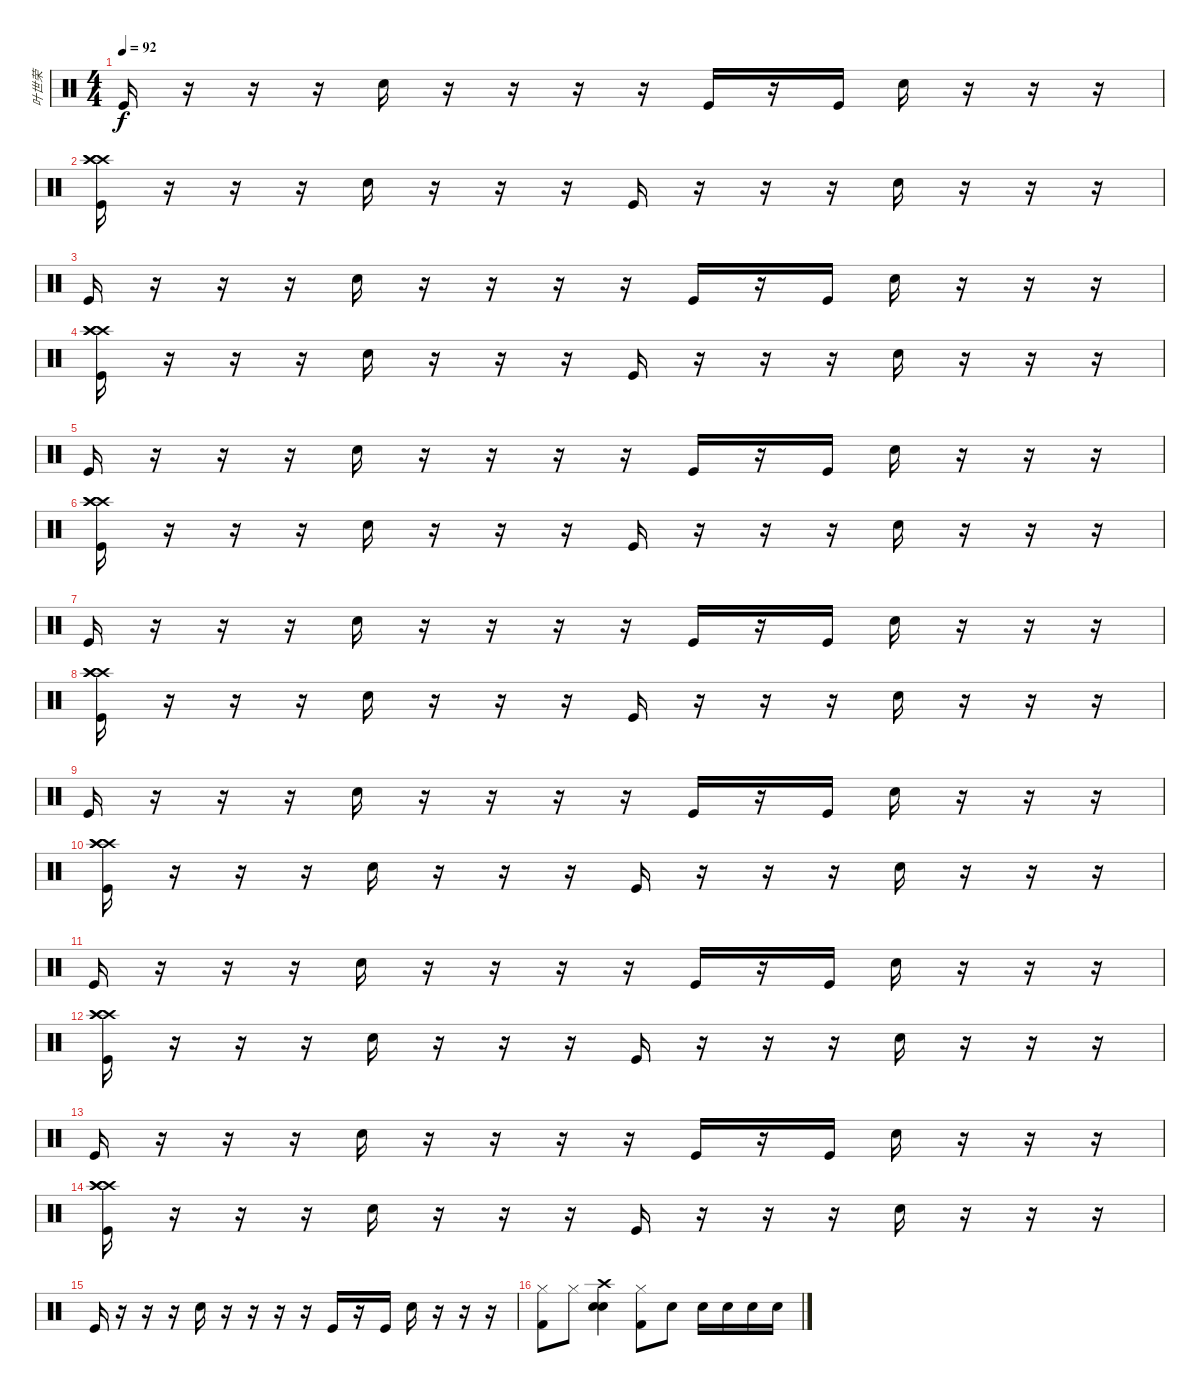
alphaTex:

\track ("叶世荣" "叶世荣") {instrument percussion}
\staff {score}
\articulation defaults
\ts (4 4)
\tempo 92
\clef neutral
\ks c "Kick (hit)".16{dy f}
r.16 r.16 r.16 "Electric Snare (hit)".16 r.16 r.16 r.16 r.16 "Kick (hit)".16 r.16 "Kick (hit)".16 "Electric Snare (hit)".16 r.16 r.16 r.16 |
("Kick (hit)" "Crash high (hit)" "Crash high (hit)" "Crash high (hit)").16 r.16 r.16 r.16 "Electric Snare (hit)".16 r.16 r.16 r.16 "Kick (hit)".16 r.16 r.16 r.16 "Electric Snare (hit)".16 r.16 r.16 r.16 |
"Kick (hit)".16 r.16 r.16 r.16 "Electric Snare (hit)".16 r.16 r.16 r.16 r.16 "Kick (hit)".16 r.16 "Kick (hit)".16 "Electric Snare (hit)".16 r.16 r.16 r.16 |
("Kick (hit)" "Crash high (hit)" "Crash high (hit)" "Crash high (hit)").16 r.16 r.16 r.16 "Electric Snare (hit)".16 r.16 r.16 r.16 "Kick (hit)".16 r.16 r.16 r.16 "Electric Snare (hit)".16 r.16 r.16 r.16 |
"Kick (hit)".16 r.16 r.16 r.16 "Electric Snare (hit)".16 r.16 r.16 r.16 r.16 "Kick (hit)".16 r.16 "Kick (hit)".16 "Electric Snare (hit)".16 r.16 r.16 r.16 |
("Kick (hit)" "Crash high (hit)" "Crash high (hit)" "Crash high (hit)").16 r.16 r.16 r.16 "Electric Snare (hit)".16 r.16 r.16 r.16 "Kick (hit)".16 r.16 r.16 r.16 "Electric Snare (hit)".16 r.16 r.16 r.16 |
"Kick (hit)".16 r.16 r.16 r.16 "Electric Snare (hit)".16 r.16 r.16 r.16 r.16 "Kick (hit)".16 r.16 "Kick (hit)".16 "Electric Snare (hit)".16 r.16 r.16 r.16 |
("Kick (hit)" "Crash high (hit)" "Crash high (hit)" "Crash high (hit)").16 r.16 r.16 r.16 "Electric Snare (hit)".16 r.16 r.16 r.16 "Kick (hit)".16 r.16 r.16 r.16 "Electric Snare (hit)".16 r.16 r.16 r.16 |
"Kick (hit)".16 r.16 r.16 r.16 "Electric Snare (hit)".16 r.16 r.16 r.16 r.16 "Kick (hit)".16 r.16 "Kick (hit)".16 "Electric Snare (hit)".16 r.16 r.16 r.16 |
("Kick (hit)" "Crash high (hit)" "Crash high (hit)" "Crash high (hit)").16 r.16 r.16 r.16 "Electric Snare (hit)".16 r.16 r.16 r.16 "Kick (hit)".16 r.16 r.16 r.16 "Electric Snare (hit)".16 r.16 r.16 r.16 |
"Kick (hit)".16 r.16 r.16 r.16 "Electric Snare (hit)".16 r.16 r.16 r.16 r.16 "Kick (hit)".16 r.16 "Kick (hit)".16 "Electric Snare (hit)".16 r.16 r.16 r.16 |
("Kick (hit)" "Crash high (hit)" "Crash high (hit)" "Crash high (hit)").16 r.16 r.16 r.16 "Electric Snare (hit)".16 r.16 r.16 r.16 "Kick (hit)".16 r.16 r.16 r.16 "Electric Snare (hit)".16 r.16 r.16 r.16 |
"Kick (hit)".16 r.16 r.16 r.16 "Electric Snare (hit)".16 r.16 r.16 r.16 r.16 "Kick (hit)".16 r.16 "Kick (hit)".16 "Electric Snare (hit)".16 r.16 r.16 r.16 |
("Kick (hit)" "Crash high (hit)" "Crash high (hit)" "Crash high (hit)").16 r.16 r.16 r.16 "Electric Snare (hit)".16 r.16 r.16 r.16 "Kick (hit)".16 r.16 r.16 r.16 "Electric Snare (hit)".16 r.16 r.16 r.16 |
"Kick (hit)".16 r.16 r.16 r.16 "Electric Snare (hit)".16 r.16 r.16 r.16 r.16 "Kick (hit)".16 r.16 "Kick (hit)".16 "Electric Snare (hit)".16 r.16 r.16 r.16 |
("Hi-Hat (closed)" "Kick (hit) 2").8 "Hi-Hat (closed)".8 ("Crash high (hit)" "Snare (hit) 2" "Electric Snare (hit)").4 ("Hi-Hat (closed)" "Kick (hit) 2").8 "Electric Snare (hit)".8 "Snare (hit) 2".16 "Snare (hit) 2".16 "Snare (hit) 2".16 "Snare (hit) 2".16
